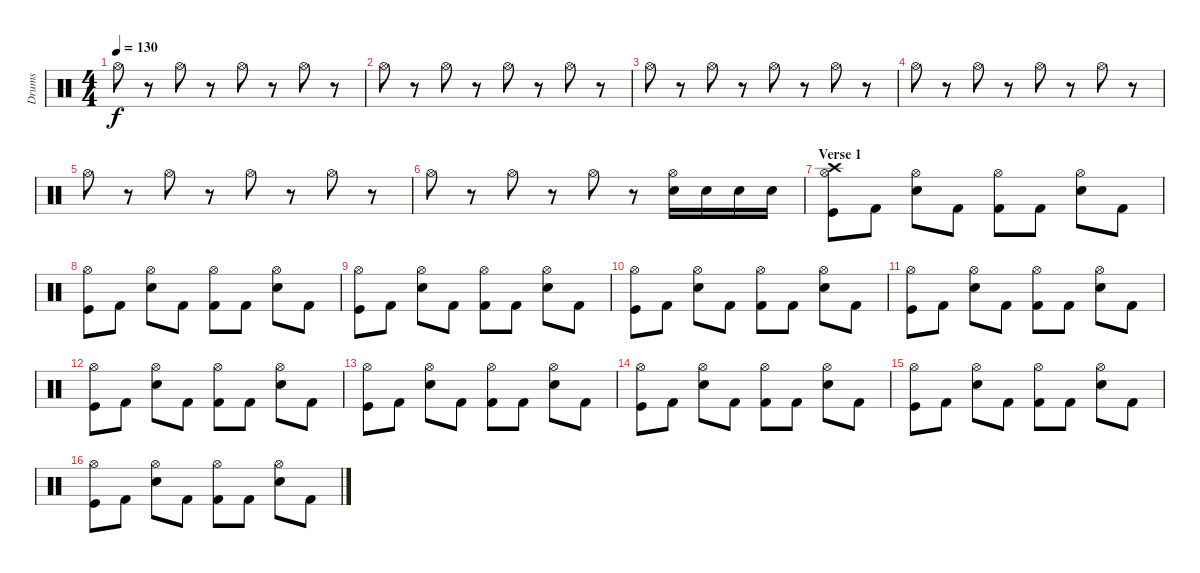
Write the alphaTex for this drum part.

\track ("Drums" "Drums") {instrument percussion}
\staff {score}
\articulation defaults
\ts (4 4)
\tempo 130
\clef neutral
\ks c "Hi-Hat (open)".8{dy f}
r.8 "Hi-Hat (open)".8 r.8 "Hi-Hat (open)".8 r.8 "Hi-Hat (open)".8 r.8 |
"Hi-Hat (open)".8 r.8 "Hi-Hat (open)".8 r.8 "Hi-Hat (open)".8 r.8 "Hi-Hat (open)".8 r.8 |
"Hi-Hat (open)".8 r.8 "Hi-Hat (open)".8 r.8 "Hi-Hat (open)".8 r.8 "Hi-Hat (open)".8 r.8 |
"Hi-Hat (open)".8 r.8 "Hi-Hat (open)".8 r.8 "Hi-Hat (open)".8 r.8 "Hi-Hat (open)".8 r.8 |
"Hi-Hat (open)".8 r.8 "Hi-Hat (open)".8 r.8 "Hi-Hat (open)".8 r.8 "Hi-Hat (open)".8 r.8 |
"Hi-Hat (open)".8 r.8 "Hi-Hat (open)".8 r.8 "Hi-Hat (open)".8 r.8 ("Hi-Hat (open)" "Electric Snare (hit)").16 "Electric Snare (hit)".16 "Electric Snare (hit)".16 "Electric Snare (hit)".16 |
\section ("" "Verse 1")
("Crash high (hit)" "Hi-Hat (open)" "Kick (hit)").8 "Kick (hit) 2".8 ("Hi-Hat (open)" "Electric Snare (hit)").8 "Kick (hit) 2".8 ("Hi-Hat (open)" "Kick (hit) 2").8 "Kick (hit) 2".8 ("Hi-Hat (open)" "Electric Snare (hit)").8 "Kick (hit) 2".8 |
("Hi-Hat (open)" "Kick (hit)").8 "Kick (hit) 2".8 ("Hi-Hat (open)" "Electric Snare (hit)").8 "Kick (hit) 2".8 ("Hi-Hat (open)" "Kick (hit) 2").8 "Kick (hit) 2".8 ("Hi-Hat (open)" "Electric Snare (hit)").8 "Kick (hit) 2".8 |
("Hi-Hat (open)" "Kick (hit)").8 "Kick (hit) 2".8 ("Hi-Hat (open)" "Electric Snare (hit)").8 "Kick (hit) 2".8 ("Hi-Hat (open)" "Kick (hit) 2").8 "Kick (hit) 2".8 ("Hi-Hat (open)" "Electric Snare (hit)").8 "Kick (hit) 2".8 |
("Hi-Hat (open)" "Kick (hit)").8 "Kick (hit) 2".8 ("Hi-Hat (open)" "Electric Snare (hit)").8 "Kick (hit) 2".8 ("Hi-Hat (open)" "Kick (hit) 2").8 "Kick (hit) 2".8 ("Hi-Hat (open)" "Electric Snare (hit)").8 "Kick (hit) 2".8 |
("Hi-Hat (open)" "Kick (hit)").8 "Kick (hit) 2".8 ("Hi-Hat (open)" "Electric Snare (hit)").8 "Kick (hit) 2".8 ("Hi-Hat (open)" "Kick (hit) 2").8 "Kick (hit) 2".8 ("Hi-Hat (open)" "Electric Snare (hit)").8 "Kick (hit) 2".8 |
("Hi-Hat (open)" "Kick (hit)").8 "Kick (hit) 2".8 ("Hi-Hat (open)" "Electric Snare (hit)").8 "Kick (hit) 2".8 ("Hi-Hat (open)" "Kick (hit) 2").8 "Kick (hit) 2".8 ("Hi-Hat (open)" "Electric Snare (hit)").8 "Kick (hit) 2".8 |
("Hi-Hat (open)" "Kick (hit)").8 "Kick (hit) 2".8 ("Hi-Hat (open)" "Electric Snare (hit)").8 "Kick (hit) 2".8 ("Hi-Hat (open)" "Kick (hit) 2").8 "Kick (hit) 2".8 ("Hi-Hat (open)" "Electric Snare (hit)").8 "Kick (hit) 2".8 |
("Hi-Hat (open)" "Kick (hit)").8 "Kick (hit) 2".8 ("Hi-Hat (open)" "Electric Snare (hit)").8 "Kick (hit) 2".8 ("Hi-Hat (open)" "Kick (hit) 2").8 "Kick (hit) 2".8 ("Hi-Hat (open)" "Electric Snare (hit)").8 "Kick (hit) 2".8 |
("Hi-Hat (open)" "Kick (hit)").8 "Kick (hit) 2".8 ("Hi-Hat (open)" "Electric Snare (hit)").8 "Kick (hit) 2".8 ("Hi-Hat (open)" "Kick (hit) 2").8 "Kick (hit) 2".8 ("Hi-Hat (open)" "Electric Snare (hit)").8 "Kick (hit) 2".8 |
("Hi-Hat (open)" "Kick (hit)").8 "Kick (hit) 2".8 ("Hi-Hat (open)" "Electric Snare (hit)").8 "Kick (hit) 2".8 ("Hi-Hat (open)" "Kick (hit) 2").8 "Kick (hit) 2".8 ("Hi-Hat (open)" "Electric Snare (hit)").8 "Kick (hit) 2".8
